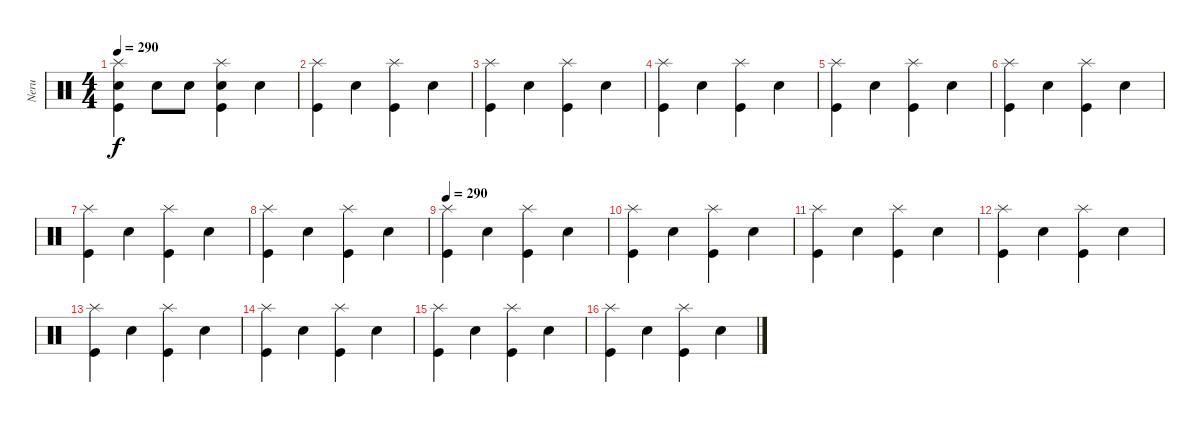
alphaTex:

\track ("Neru" "Neru") {instrument percussion}
\staff {score}
\articulation defaults
\ts (4 4)
\tempo 290
\clef neutral
\ks c
("Splash (hit)" "Electric Snare (hit)" "Kick (hit)").4{dy f} "Electric Snare (hit)".8 "Electric Snare (hit)".8 ("Splash (hit)" "Electric Snare (hit)" "Kick (hit)").4 "Electric Snare (hit)".4 |
("Splash (hit)" "Kick (hit)").4 "Electric Snare (hit)".4 ("Splash (hit)" "Kick (hit)").4 "Electric Snare (hit)".4 |
("Splash (hit)" "Kick (hit)").4 "Electric Snare (hit)".4 ("Splash (hit)" "Kick (hit)").4 "Electric Snare (hit)".4 |
("Splash (hit)" "Kick (hit)").4 "Electric Snare (hit)".4 ("Splash (hit)" "Kick (hit)").4 "Electric Snare (hit)".4 |
("Splash (hit)" "Kick (hit)").4 "Electric Snare (hit)".4 ("Splash (hit)" "Kick (hit)").4 "Electric Snare (hit)".4 |
("Splash (hit)" "Kick (hit)").4 "Electric Snare (hit)".4 ("Splash (hit)" "Kick (hit)").4 "Electric Snare (hit)".4 |
("Splash (hit)" "Kick (hit)").4 "Electric Snare (hit)".4 ("Splash (hit)" "Kick (hit)").4 "Electric Snare (hit)".4 |
("Splash (hit)" "Kick (hit)").4 "Electric Snare (hit)".4 ("Splash (hit)" "Kick (hit)").4 "Electric Snare (hit)".4 |
\tempo 290
("Splash (hit)" "Kick (hit)").4 "Electric Snare (hit)".4 ("Splash (hit)" "Kick (hit)").4 "Electric Snare (hit)".4 |
("Splash (hit)" "Kick (hit)").4 "Electric Snare (hit)".4 ("Splash (hit)" "Kick (hit)").4 "Electric Snare (hit)".4 |
("Splash (hit)" "Kick (hit)").4 "Electric Snare (hit)".4 ("Splash (hit)" "Kick (hit)").4 "Electric Snare (hit)".4 |
("Splash (hit)" "Kick (hit)").4 "Electric Snare (hit)".4 ("Splash (hit)" "Kick (hit)").4 "Electric Snare (hit)".4 |
("Splash (hit)" "Kick (hit)").4 "Electric Snare (hit)".4 ("Splash (hit)" "Kick (hit)").4 "Electric Snare (hit)".4 |
("Splash (hit)" "Kick (hit)").4 "Electric Snare (hit)".4 ("Splash (hit)" "Kick (hit)").4 "Electric Snare (hit)".4 |
("Splash (hit)" "Kick (hit)").4 "Electric Snare (hit)".4 ("Splash (hit)" "Kick (hit)").4 "Electric Snare (hit)".4 |
("Splash (hit)" "Kick (hit)").4 "Electric Snare (hit)".4 ("Splash (hit)" "Kick (hit)").4 "Electric Snare (hit)".4
